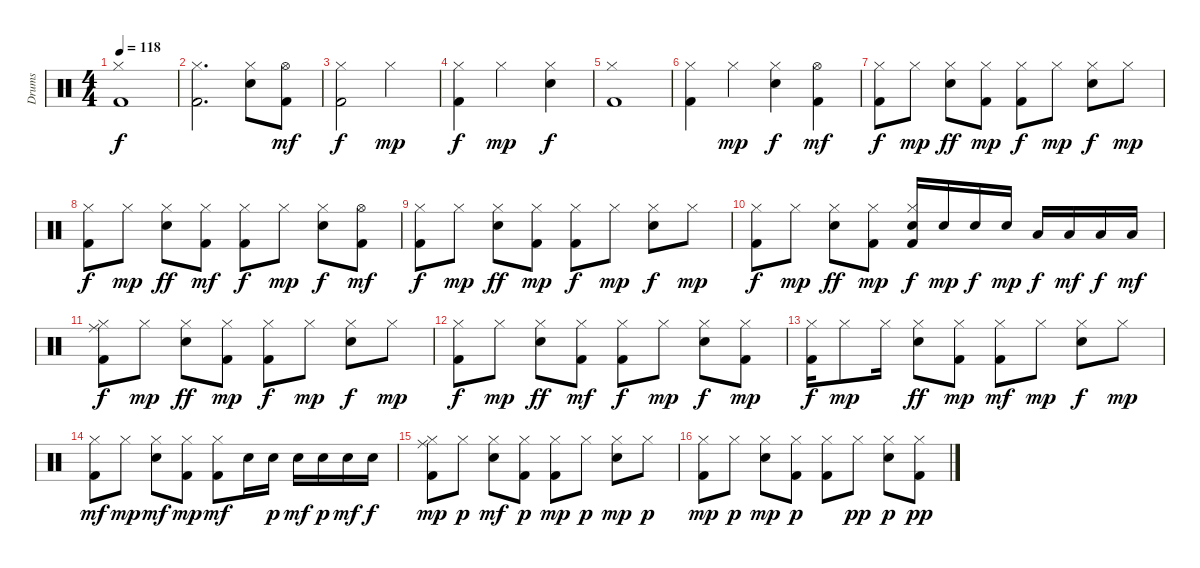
\track ("Drums" "Drums") {instrument percussion}
\staff {score}
\articulation defaults
\ts (4 4)
\tempo 118
\clef neutral
\ks c
("Kick (hit) 2" "Hi-Hat (closed)").1{dy f} |
("Kick (hit) 2" "Hi-Hat (closed)").2{d} ("Snare (hit) 2" "Hi-Hat (closed)").8 ("Kick (hit) 2" "Hi-Hat (open)").8{dy mf} |
("Kick (hit) 2" "Hi-Hat (closed)").2{dy f} "Hi-Hat (closed)".2{dy mp} |
("Kick (hit) 2" "Hi-Hat (closed)").4{dy f} "Hi-Hat (closed)".2{dy mp} ("Snare (hit) 2" "Hi-Hat (closed)").4{dy f} |
("Kick (hit) 2" "Hi-Hat (closed)").1 |
("Kick (hit) 2" "Hi-Hat (closed)").4 "Hi-Hat (closed)".4{dy mp} ("Snare (hit) 2" "Hi-Hat (closed)").4{dy f} ("Kick (hit) 2" "Hi-Hat (open)").4{dy mf} |
("Kick (hit) 2" "Hi-Hat (closed)").8{dy f} "Hi-Hat (closed)".8{dy mp} ("Snare (hit) 2" "Hi-Hat (closed)").8{dy ff} ("Kick (hit) 2" "Hi-Hat (closed)").8{dy mp} ("Kick (hit) 2" "Hi-Hat (closed)").8{dy f} "Hi-Hat (closed)".8{dy mp} ("Snare (hit) 2" "Hi-Hat (closed)").8{dy f} "Hi-Hat (closed)".8{dy mp} |
("Kick (hit) 2" "Hi-Hat (closed)").8{dy f} "Hi-Hat (closed)".8{dy mp} ("Snare (hit) 2" "Hi-Hat (closed)").8{dy ff} ("Kick (hit) 2" "Hi-Hat (closed)").8{dy mf} ("Kick (hit) 2" "Hi-Hat (closed)").8{dy f} "Hi-Hat (closed)".8{dy mp} ("Snare (hit) 2" "Hi-Hat (closed)").8{dy f} ("Kick (hit) 2" "Hi-Hat (open)").8{dy mf} |
("Kick (hit) 2" "Hi-Hat (closed)").8{dy f} "Hi-Hat (closed)".8{dy mp} ("Snare (hit) 2" "Hi-Hat (closed)").8{dy ff} ("Kick (hit) 2" "Hi-Hat (closed)").8{dy mp} ("Kick (hit) 2" "Hi-Hat (closed)").8{dy f} "Hi-Hat (closed)".8{dy mp} ("Snare (hit) 2" "Hi-Hat (closed)").8{dy f} "Hi-Hat (closed)".8{dy mp} |
("Kick (hit) 2" "Hi-Hat (closed)").8{dy f} "Hi-Hat (closed)".8{dy mp} ("Snare (hit) 2" "Hi-Hat (closed)").8{dy ff} ("Kick (hit) 2" "Hi-Hat (closed)").8{dy mp} ("Kick (hit) 2" "Snare (hit) 2" "Hi-Hat (closed)").16{dy f} "Snare (hit) 2".16{dy mp} "Snare (hit) 2".16{dy f} "Snare (hit) 2".16{dy mp} "Low Tom (hit)".16{dy f} "Low Tom (hit)".16{dy mf} "Low Tom (hit)".16{dy f} "Low Tom (hit)".16{dy mf} |
("Kick (hit) 2" "Hi-Hat (closed)" "Ride (middle)").8{dy f} "Hi-Hat (closed)".8{dy mp} ("Snare (hit) 2" "Hi-Hat (closed)").8{dy ff} ("Kick (hit) 2" "Hi-Hat (closed)").8{dy mp} ("Kick (hit) 2" "Hi-Hat (closed)").8{dy f} "Hi-Hat (closed)".8{dy mp} ("Snare (hit) 2" "Hi-Hat (closed)").8{dy f} "Hi-Hat (closed)".8{dy mp} |
("Kick (hit) 2" "Hi-Hat (closed)").8{dy f} "Hi-Hat (closed)".8{dy mp} ("Snare (hit) 2" "Hi-Hat (closed)").8{dy ff} ("Kick (hit) 2" "Hi-Hat (closed)").8{dy mf} ("Kick (hit) 2" "Hi-Hat (closed)").8{dy f} "Hi-Hat (closed)".8{dy mp} ("Snare (hit) 2" "Hi-Hat (closed)").8{dy f} ("Kick (hit) 2" "Hi-Hat (closed)").8{dy mp} |
("Kick (hit) 2" "Hi-Hat (closed)").16{dy f} "Hi-Hat (closed)".8{dy mp} "Hi-Hat (closed)".16 ("Snare (hit) 2" "Hi-Hat (closed)").8{dy ff} ("Kick (hit) 2" "Hi-Hat (closed)").8{dy mp} ("Kick (hit) 2" "Hi-Hat (closed)").8{dy mf} "Hi-Hat (closed)".8{dy mp} ("Snare (hit) 2" "Hi-Hat (closed)").8{dy f} "Hi-Hat (closed)".8{dy mp} |
("Kick (hit) 2" "Hi-Hat (closed)").8{dy mf} "Hi-Hat (closed)".8{dy mp} ("Snare (hit) 2" "Hi-Hat (closed)").8{dy mf} ("Kick (hit) 2" "Hi-Hat (closed)").8{dy mp} ("Kick (hit) 2" "Hi-Hat (closed)").8{dy mf} "Snare (hit) 2".16 "Snare (hit) 2".16{dy p} "Snare (hit) 2".16{dy mf} "Snare (hit) 2".16{dy p} "Snare (hit) 2".16{dy mf} "Snare (hit) 2".16{dy f} |
("Kick (hit) 2" "Hi-Hat (closed)" "Ride (middle)").8{dy mp} "Hi-Hat (closed)".8{dy p} ("Snare (hit) 2" "Hi-Hat (closed)").8{dy mf} ("Kick (hit) 2" "Hi-Hat (closed)").8{dy p} ("Kick (hit) 2" "Hi-Hat (closed)").8{dy mp} "Hi-Hat (closed)".8{dy p} ("Snare (hit) 2" "Hi-Hat (closed)").8{dy mp} "Hi-Hat (closed)".8{dy p} |
("Kick (hit) 2" "Hi-Hat (closed)").8{dy mp} "Hi-Hat (closed)".8{dy p} ("Snare (hit) 2" "Hi-Hat (closed)").8{dy mp} ("Kick (hit) 2" "Hi-Hat (closed)").8{dy p} ("Kick (hit) 2" "Hi-Hat (closed)").8 "Hi-Hat (closed)".8{dy pp} ("Snare (hit) 2" "Hi-Hat (closed)").8{dy p} ("Kick (hit) 2" "Hi-Hat (closed)").8{dy pp}
